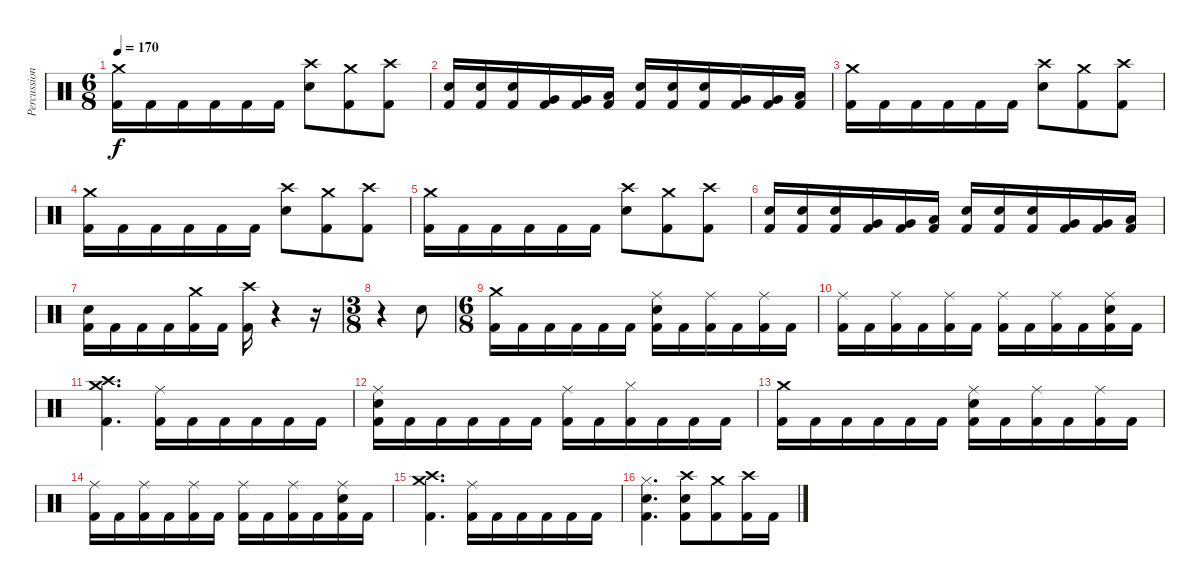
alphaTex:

\track ("Percussions" "Percussion") {instrument percussion}
\staff {score}
\articulation defaults
\ts (6 8)
\tempo 170
\clef neutral
\ks c
("Crash medium (hit)" "Kick (hit) 2").16{dy f} "Kick (hit) 2".16 "Kick (hit) 2".16 "Kick (hit) 2".16 "Kick (hit) 2".16 "Kick (hit) 2".16 ("Crash high (hit)" "Electric Snare (hit)").8 ("Crash medium (hit)" "Kick (hit) 2").8 ("Crash high (hit)" "Kick (hit) 2").8 |
("Electric Snare (hit)" "Kick (hit) 2").16 ("Electric Snare (hit)" "Kick (hit) 2").16 ("Electric Snare (hit)" "Kick (hit) 2").16 ("Very Low Tom (hit)" "Kick (hit) 2").16 ("Very Low Tom (hit)" "Kick (hit) 2").16 ("Low Floor Tom (hit)" "Kick (hit) 2").16 ("Electric Snare (hit)" "Kick (hit) 2").16 ("Electric Snare (hit)" "Kick (hit) 2").16 ("Electric Snare (hit)" "Kick (hit) 2").16 ("Very Low Tom (hit)" "Kick (hit) 2").16 ("Very Low Tom (hit)" "Kick (hit) 2").16 ("Low Floor Tom (hit)" "Kick (hit) 2").16 |
("Crash medium (hit)" "Kick (hit) 2").16 "Kick (hit) 2".16 "Kick (hit) 2".16 "Kick (hit) 2".16 "Kick (hit) 2".16 "Kick (hit) 2".16 ("Crash high (hit)" "Electric Snare (hit)").8 ("Crash medium (hit)" "Kick (hit) 2").8 ("Crash high (hit)" "Kick (hit) 2").8 |
("Crash medium (hit)" "Kick (hit) 2").16 "Kick (hit) 2".16 "Kick (hit) 2".16 "Kick (hit) 2".16 "Kick (hit) 2".16 "Kick (hit) 2".16 ("Crash high (hit)" "Electric Snare (hit)").8 ("Crash medium (hit)" "Kick (hit) 2").8 ("Crash high (hit)" "Kick (hit) 2").8 |
("Crash medium (hit)" "Kick (hit) 2").16 "Kick (hit) 2".16 "Kick (hit) 2".16 "Kick (hit) 2".16 "Kick (hit) 2".16 "Kick (hit) 2".16 ("Crash high (hit)" "Electric Snare (hit)").8 ("Crash medium (hit)" "Kick (hit) 2").8 ("Crash high (hit)" "Kick (hit) 2").8 |
("Electric Snare (hit)" "Kick (hit) 2").16 ("Electric Snare (hit)" "Kick (hit) 2").16 ("Electric Snare (hit)" "Kick (hit) 2").16 ("Very Low Tom (hit)" "Kick (hit) 2").16 ("Very Low Tom (hit)" "Kick (hit) 2").16 ("Low Floor Tom (hit)" "Kick (hit) 2").16 ("Electric Snare (hit)" "Kick (hit) 2").16 ("Electric Snare (hit)" "Kick (hit) 2").16 ("Electric Snare (hit)" "Kick (hit) 2").16 ("Very Low Tom (hit)" "Kick (hit) 2").16 ("Very Low Tom (hit)" "Kick (hit) 2").16 ("Low Floor Tom (hit)" "Kick (hit) 2").16 |
("Electric Snare (hit)" "Kick (hit) 2").16 "Kick (hit) 2".16 "Kick (hit) 2".16 "Kick (hit) 2".16 ("Crash medium (hit)" "Kick (hit) 2").16 "Kick (hit) 2".16 ("Crash high (hit)" "Kick (hit) 2").16 r.4 r.16 |
\ts (3 8)
r.4 "Electric Snare (hit)".8 |
\ts (6 8)
("Crash medium (hit)" "Kick (hit) 2").16 "Kick (hit) 2".16 "Kick (hit) 2".16 "Kick (hit) 2".16 "Kick (hit) 2".16 "Kick (hit) 2".16 ("Electric Snare (hit)" "Ride (middle)" "Kick (hit) 2").16 "Kick (hit) 2".16 ("Ride (middle)" "Kick (hit) 2").16 "Kick (hit) 2".16 ("Ride (middle)" "Kick (hit) 2").16 "Kick (hit) 2".16 |
("Ride (middle)" "Kick (hit) 2").16 "Kick (hit) 2".16 ("Ride (middle)" "Kick (hit) 2").16 "Kick (hit) 2".16 ("Ride (middle)" "Kick (hit) 2").16 "Kick (hit) 2".16 ("Ride (middle)" "Kick (hit) 2").16 "Kick (hit) 2".16 ("Ride (middle)" "Kick (hit) 2").16 "Kick (hit) 2".16 ("Electric Snare (hit)" "Ride (middle)" "Kick (hit) 2").16 "Kick (hit) 2".16 |
("Crash high (hit)" "Crash medium (hit)" "Kick (hit) 2").4{d} ("Ride (middle)" "Kick (hit) 2").16 "Kick (hit) 2".16 "Kick (hit) 2".16 "Kick (hit) 2".16 "Kick (hit) 2".16 "Kick (hit) 2".16 |
("Electric Snare (hit)" "Ride (middle)" "Kick (hit) 2").16 "Kick (hit) 2".16 "Kick (hit) 2".16 "Kick (hit) 2".16 "Kick (hit) 2".16 "Kick (hit) 2".16 ("Ride (middle)" "Kick (hit) 2").16 "Kick (hit) 2".16 ("Hi-Hat (closed)" "Kick (hit) 2").16 "Kick (hit) 2".16 "Kick (hit) 2".16 "Kick (hit) 2".16 |
("Crash medium (hit)" "Kick (hit) 2").16 "Kick (hit) 2".16 "Kick (hit) 2".16 "Kick (hit) 2".16 "Kick (hit) 2".16 "Kick (hit) 2".16 ("Electric Snare (hit)" "Ride (middle)" "Kick (hit) 2").16 "Kick (hit) 2".16 ("Ride (middle)" "Kick (hit) 2").16 "Kick (hit) 2".16 ("Ride (middle)" "Kick (hit) 2").16 "Kick (hit) 2".16 |
("Ride (middle)" "Kick (hit) 2").16 "Kick (hit) 2".16 ("Ride (middle)" "Kick (hit) 2").16 "Kick (hit) 2".16 ("Ride (middle)" "Kick (hit) 2").16 "Kick (hit) 2".16 ("Ride (middle)" "Kick (hit) 2").16 "Kick (hit) 2".16 ("Ride (middle)" "Kick (hit) 2").16 "Kick (hit) 2".16 ("Electric Snare (hit)" "Ride (middle)" "Kick (hit) 2").16 "Kick (hit) 2".16 |
("Crash high (hit)" "Crash medium (hit)" "Kick (hit) 2").4{d} ("Ride (middle)" "Kick (hit) 2").16 "Kick (hit) 2".16 "Kick (hit) 2".16 "Kick (hit) 2".16 "Kick (hit) 2".16 "Kick (hit) 2".16 |
("Hi-Hat (closed)" "Electric Snare (hit)" "Kick (hit) 2").4{d} ("Crash high (hit)" "Electric Snare (hit)" "Kick (hit) 2").8 ("Crash medium (hit)" "Kick (hit) 2").8 ("Crash high (hit)" "Kick (hit) 2").16 "Kick (hit) 2".16
